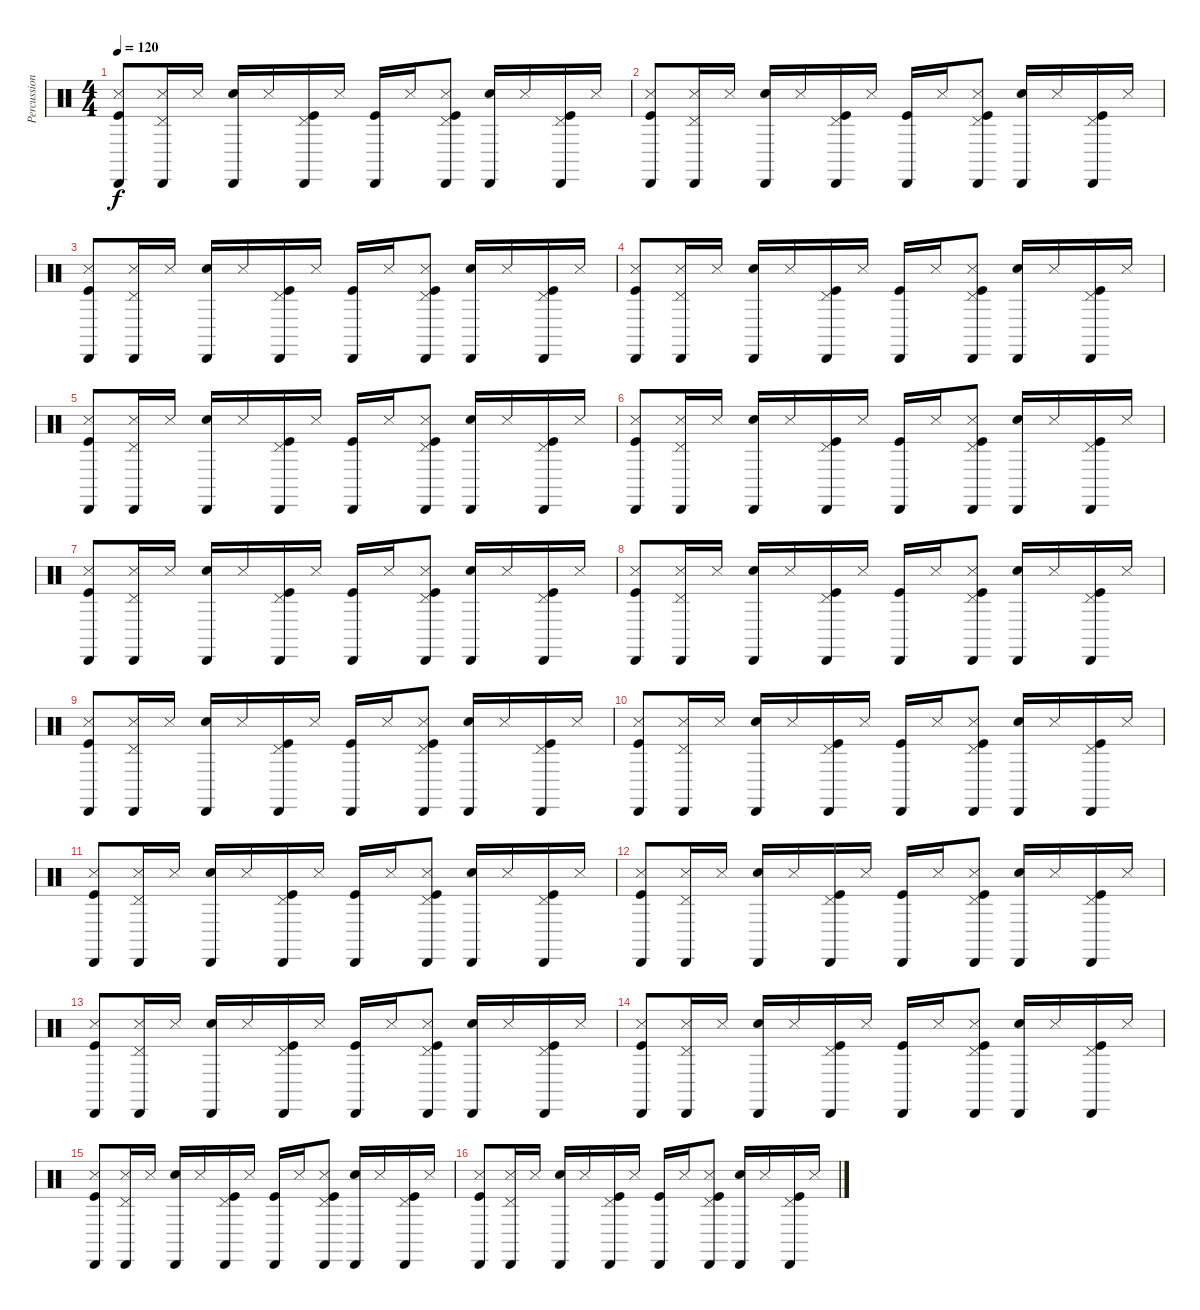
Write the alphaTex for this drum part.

\track ("Percussions" "Percussion") {instrument percussion}
\staff {score}
\articulation defaults
\ts (4 4)
\tempo 120
\clef neutral
\ks c
("Kick (hit)" "Cabasa (hit)" "Metronome (hit)").8{dy f} ("Cabasa (hit)" "Pedal Hi-Hat (hit)" "Metronome (hit)").16 "Metronome (hit)".16 ("Snare (hit) 2" "Cabasa (hit)").16 "Metronome (hit)".16 ("Kick (hit)" "Cabasa (hit)" "Pedal Hi-Hat (hit)").16 "Metronome (hit)".16 ("Kick (hit)" "Cabasa (hit)").16 "Metronome (hit)".16 ("Kick (hit)" "Cabasa (hit)" "Pedal Hi-Hat (hit)" "Metronome (hit)").8 ("Snare (hit) 2" "Cabasa (hit)").16 "Metronome (hit)".16 ("Kick (hit)" "Cabasa (hit)" "Pedal Hi-Hat (hit)").16 "Metronome (hit)".16 |
("Kick (hit)" "Cabasa (hit)" "Metronome (hit)").8 ("Cabasa (hit)" "Pedal Hi-Hat (hit)" "Metronome (hit)").16 "Metronome (hit)".16 ("Snare (hit) 2" "Cabasa (hit)").16 "Metronome (hit)".16 ("Kick (hit)" "Cabasa (hit)" "Pedal Hi-Hat (hit)").16 "Metronome (hit)".16 ("Kick (hit)" "Cabasa (hit)").16 "Metronome (hit)".16 ("Kick (hit)" "Cabasa (hit)" "Pedal Hi-Hat (hit)" "Metronome (hit)").8 ("Snare (hit) 2" "Cabasa (hit)").16 "Metronome (hit)".16 ("Kick (hit)" "Cabasa (hit)" "Pedal Hi-Hat (hit)").16 "Metronome (hit)".16 |
("Kick (hit)" "Cabasa (hit)" "Metronome (hit)").8 ("Cabasa (hit)" "Pedal Hi-Hat (hit)" "Metronome (hit)").16 "Metronome (hit)".16 ("Snare (hit) 2" "Cabasa (hit)").16 "Metronome (hit)".16 ("Kick (hit)" "Cabasa (hit)" "Pedal Hi-Hat (hit)").16 "Metronome (hit)".16 ("Kick (hit)" "Cabasa (hit)").16 "Metronome (hit)".16 ("Kick (hit)" "Cabasa (hit)" "Pedal Hi-Hat (hit)" "Metronome (hit)").8 ("Snare (hit) 2" "Cabasa (hit)").16 "Metronome (hit)".16 ("Kick (hit)" "Cabasa (hit)" "Pedal Hi-Hat (hit)").16 "Metronome (hit)".16 |
("Kick (hit)" "Cabasa (hit)" "Metronome (hit)").8 ("Cabasa (hit)" "Pedal Hi-Hat (hit)" "Metronome (hit)").16 "Metronome (hit)".16 ("Snare (hit) 2" "Cabasa (hit)").16 "Metronome (hit)".16 ("Kick (hit)" "Cabasa (hit)" "Pedal Hi-Hat (hit)").16 "Metronome (hit)".16 ("Kick (hit)" "Cabasa (hit)").16 "Metronome (hit)".16 ("Kick (hit)" "Cabasa (hit)" "Pedal Hi-Hat (hit)" "Metronome (hit)").8 ("Snare (hit) 2" "Cabasa (hit)").16 "Metronome (hit)".16 ("Kick (hit)" "Cabasa (hit)" "Pedal Hi-Hat (hit)").16 "Metronome (hit)".16 |
("Kick (hit)" "Cabasa (hit)" "Metronome (hit)").8 ("Cabasa (hit)" "Pedal Hi-Hat (hit)" "Metronome (hit)").16 "Metronome (hit)".16 ("Snare (hit) 2" "Cabasa (hit)").16 "Metronome (hit)".16 ("Kick (hit)" "Cabasa (hit)" "Pedal Hi-Hat (hit)").16 "Metronome (hit)".16 ("Kick (hit)" "Cabasa (hit)").16 "Metronome (hit)".16 ("Kick (hit)" "Cabasa (hit)" "Pedal Hi-Hat (hit)" "Metronome (hit)").8 ("Snare (hit) 2" "Cabasa (hit)").16 "Metronome (hit)".16 ("Kick (hit)" "Cabasa (hit)" "Pedal Hi-Hat (hit)").16 "Metronome (hit)".16 |
("Kick (hit)" "Cabasa (hit)" "Metronome (hit)").8 ("Cabasa (hit)" "Pedal Hi-Hat (hit)" "Metronome (hit)").16 "Metronome (hit)".16 ("Snare (hit) 2" "Cabasa (hit)").16 "Metronome (hit)".16 ("Kick (hit)" "Cabasa (hit)" "Pedal Hi-Hat (hit)").16 "Metronome (hit)".16 ("Kick (hit)" "Cabasa (hit)").16 "Metronome (hit)".16 ("Kick (hit)" "Cabasa (hit)" "Pedal Hi-Hat (hit)" "Metronome (hit)").8 ("Snare (hit) 2" "Cabasa (hit)").16 "Metronome (hit)".16 ("Kick (hit)" "Cabasa (hit)" "Pedal Hi-Hat (hit)").16 "Metronome (hit)".16 |
("Kick (hit)" "Cabasa (hit)" "Metronome (hit)").8 ("Cabasa (hit)" "Pedal Hi-Hat (hit)" "Metronome (hit)").16 "Metronome (hit)".16 ("Snare (hit) 2" "Cabasa (hit)").16 "Metronome (hit)".16 ("Kick (hit)" "Cabasa (hit)" "Pedal Hi-Hat (hit)").16 "Metronome (hit)".16 ("Kick (hit)" "Cabasa (hit)").16 "Metronome (hit)".16 ("Kick (hit)" "Cabasa (hit)" "Pedal Hi-Hat (hit)" "Metronome (hit)").8 ("Snare (hit) 2" "Cabasa (hit)").16 "Metronome (hit)".16 ("Kick (hit)" "Cabasa (hit)" "Pedal Hi-Hat (hit)").16 "Metronome (hit)".16 |
("Metronome (hit)" "Cabasa (hit)" "Kick (hit)").8 ("Cabasa (hit)" "Pedal Hi-Hat (hit)" "Metronome (hit)").16 "Metronome (hit)".16 ("Snare (hit) 2" "Cabasa (hit)").16 "Metronome (hit)".16 ("Kick (hit)" "Cabasa (hit)" "Pedal Hi-Hat (hit)").16 "Metronome (hit)".16 ("Kick (hit)" "Cabasa (hit)").16 "Metronome (hit)".16 ("Kick (hit)" "Cabasa (hit)" "Pedal Hi-Hat (hit)" "Metronome (hit)").8 ("Snare (hit) 2" "Cabasa (hit)").16 "Metronome (hit)".16 ("Kick (hit)" "Cabasa (hit)" "Pedal Hi-Hat (hit)").16 "Metronome (hit)".16 |
("Kick (hit)" "Cabasa (hit)" "Metronome (hit)").8 ("Cabasa (hit)" "Pedal Hi-Hat (hit)" "Metronome (hit)").16 "Metronome (hit)".16 ("Snare (hit) 2" "Cabasa (hit)").16 "Metronome (hit)".16 ("Kick (hit)" "Cabasa (hit)" "Pedal Hi-Hat (hit)").16 "Metronome (hit)".16 ("Kick (hit)" "Cabasa (hit)").16 "Metronome (hit)".16 ("Kick (hit)" "Cabasa (hit)" "Pedal Hi-Hat (hit)" "Metronome (hit)").8 ("Snare (hit) 2" "Cabasa (hit)").16 "Metronome (hit)".16 ("Kick (hit)" "Cabasa (hit)" "Pedal Hi-Hat (hit)").16 "Metronome (hit)".16 |
("Metronome (hit)" "Cabasa (hit)" "Kick (hit)").8 ("Cabasa (hit)" "Pedal Hi-Hat (hit)" "Metronome (hit)").16 "Metronome (hit)".16 ("Snare (hit) 2" "Cabasa (hit)").16 "Metronome (hit)".16 ("Kick (hit)" "Cabasa (hit)" "Pedal Hi-Hat (hit)").16 "Metronome (hit)".16 ("Kick (hit)" "Cabasa (hit)").16 "Metronome (hit)".16 ("Kick (hit)" "Cabasa (hit)" "Pedal Hi-Hat (hit)" "Metronome (hit)").8 ("Snare (hit) 2" "Cabasa (hit)").16 "Metronome (hit)".16 ("Kick (hit)" "Cabasa (hit)" "Pedal Hi-Hat (hit)").16 "Metronome (hit)".16 |
("Kick (hit)" "Cabasa (hit)" "Metronome (hit)").8 ("Cabasa (hit)" "Pedal Hi-Hat (hit)" "Metronome (hit)").16 "Metronome (hit)".16 ("Snare (hit) 2" "Cabasa (hit)").16 "Metronome (hit)".16 ("Kick (hit)" "Cabasa (hit)" "Pedal Hi-Hat (hit)").16 "Metronome (hit)".16 ("Kick (hit)" "Cabasa (hit)").16 "Metronome (hit)".16 ("Kick (hit)" "Cabasa (hit)" "Pedal Hi-Hat (hit)" "Metronome (hit)").8 ("Snare (hit) 2" "Cabasa (hit)").16 "Metronome (hit)".16 ("Kick (hit)" "Cabasa (hit)" "Pedal Hi-Hat (hit)").16 "Metronome (hit)".16 |
("Metronome (hit)" "Cabasa (hit)" "Kick (hit)").8 ("Cabasa (hit)" "Pedal Hi-Hat (hit)" "Metronome (hit)").16 "Metronome (hit)".16 ("Snare (hit) 2" "Cabasa (hit)").16 "Metronome (hit)".16 ("Kick (hit)" "Cabasa (hit)" "Pedal Hi-Hat (hit)").16 "Metronome (hit)".16 ("Kick (hit)" "Cabasa (hit)").16 "Metronome (hit)".16 ("Kick (hit)" "Cabasa (hit)" "Pedal Hi-Hat (hit)" "Metronome (hit)").8 ("Snare (hit) 2" "Cabasa (hit)").16 "Metronome (hit)".16 ("Kick (hit)" "Cabasa (hit)" "Pedal Hi-Hat (hit)").16 "Metronome (hit)".16 |
("Kick (hit)" "Cabasa (hit)" "Metronome (hit)").8 ("Cabasa (hit)" "Pedal Hi-Hat (hit)" "Metronome (hit)").16 "Metronome (hit)".16 ("Snare (hit) 2" "Cabasa (hit)").16 "Metronome (hit)".16 ("Kick (hit)" "Cabasa (hit)" "Pedal Hi-Hat (hit)").16 "Metronome (hit)".16 ("Kick (hit)" "Cabasa (hit)").16 "Metronome (hit)".16 ("Kick (hit)" "Cabasa (hit)" "Pedal Hi-Hat (hit)" "Metronome (hit)").8 ("Snare (hit) 2" "Cabasa (hit)").16 "Metronome (hit)".16 ("Kick (hit)" "Cabasa (hit)" "Pedal Hi-Hat (hit)").16 "Metronome (hit)".16 |
("Metronome (hit)" "Cabasa (hit)" "Kick (hit)").8 ("Cabasa (hit)" "Pedal Hi-Hat (hit)" "Metronome (hit)").16 "Metronome (hit)".16 ("Snare (hit) 2" "Cabasa (hit)").16 "Metronome (hit)".16 ("Kick (hit)" "Cabasa (hit)" "Pedal Hi-Hat (hit)").16 "Metronome (hit)".16 ("Kick (hit)" "Cabasa (hit)").16 "Metronome (hit)".16 ("Kick (hit)" "Cabasa (hit)" "Pedal Hi-Hat (hit)" "Metronome (hit)").8 ("Snare (hit) 2" "Cabasa (hit)").16 "Metronome (hit)".16 ("Kick (hit)" "Cabasa (hit)" "Pedal Hi-Hat (hit)").16 "Metronome (hit)".16 |
("Kick (hit)" "Cabasa (hit)" "Metronome (hit)").8 ("Cabasa (hit)" "Pedal Hi-Hat (hit)" "Metronome (hit)").16 "Metronome (hit)".16 ("Snare (hit) 2" "Cabasa (hit)").16 "Metronome (hit)".16 ("Kick (hit)" "Cabasa (hit)" "Pedal Hi-Hat (hit)").16 "Metronome (hit)".16 ("Kick (hit)" "Cabasa (hit)").16 "Metronome (hit)".16 ("Kick (hit)" "Cabasa (hit)" "Pedal Hi-Hat (hit)" "Metronome (hit)").8 ("Snare (hit) 2" "Cabasa (hit)").16 "Metronome (hit)".16 ("Kick (hit)" "Cabasa (hit)" "Pedal Hi-Hat (hit)").16 "Metronome (hit)".16 |
("Metronome (hit)" "Cabasa (hit)" "Kick (hit)").8 ("Cabasa (hit)" "Pedal Hi-Hat (hit)" "Metronome (hit)").16 "Metronome (hit)".16 ("Snare (hit) 2" "Cabasa (hit)").16 "Metronome (hit)".16 ("Kick (hit)" "Cabasa (hit)" "Pedal Hi-Hat (hit)").16 "Metronome (hit)".16 ("Kick (hit)" "Cabasa (hit)").16 "Metronome (hit)".16 ("Kick (hit)" "Cabasa (hit)" "Pedal Hi-Hat (hit)" "Metronome (hit)").8 ("Snare (hit) 2" "Cabasa (hit)").16 "Metronome (hit)".16 ("Kick (hit)" "Cabasa (hit)" "Pedal Hi-Hat (hit)").16 "Metronome (hit)".16
